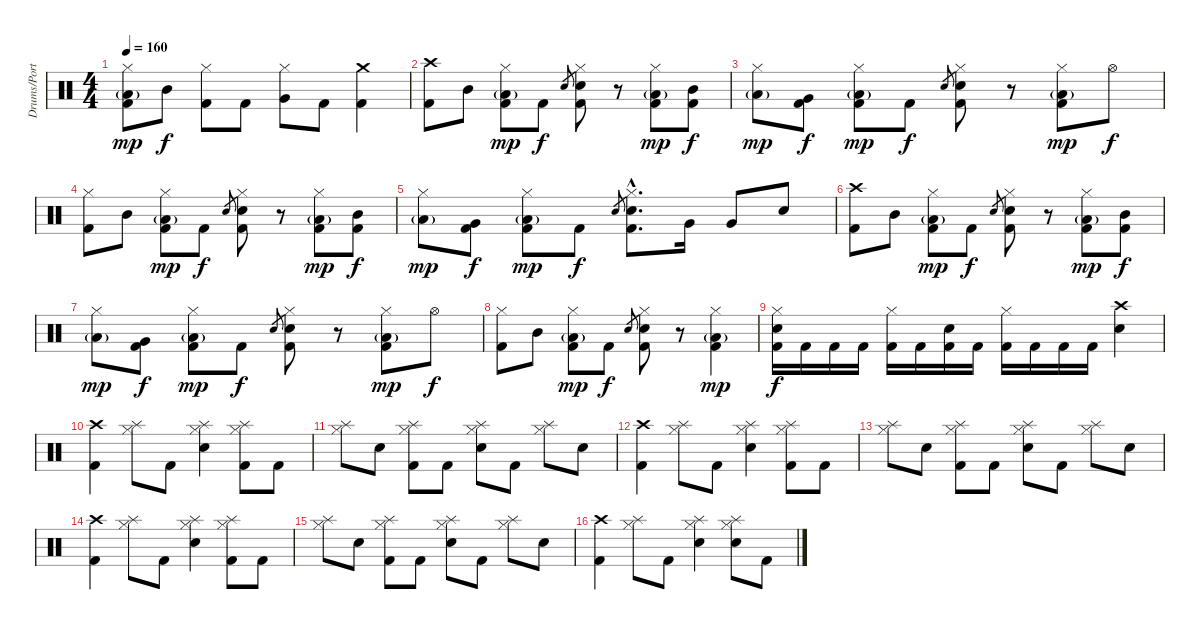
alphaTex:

\track ("Drums/Portnoy" "Drums/Port") {instrument percussion}
\staff {score}
\articulation defaults
\ts (4 4)
\tempo 160
\clef neutral
\ks c
("Hi-Hat (closed)" "Low Tom (hit)"{g} "Kick (hit) 2").8{dy mp} "Mid Tom (hit)".8{dy f} ("Hi-Hat (closed)" "Kick (hit) 2").8 "Kick (hit) 2".8 ("Hi-Hat (closed)" "Very Low Tom (hit)").8 "Kick (hit) 2".8 ("Crash medium (hit)" "Kick (hit) 2").4 |
("Crash high (hit)" "Kick (hit) 2").8 "Mid Tom (hit)".8 ("Hi-Hat (closed)" "Low Tom (hit)"{g} "Kick (hit) 2").8{dy mp} "Kick (hit) 2".8{dy f} "Electric Snare (hit)".8{gr} ("Hi-Hat (closed)" "Electric Snare (hit)" "Kick (hit) 2").8 r.8 ("Hi-Hat (closed)" "Low Tom (hit)"{g} "Kick (hit) 2").8{dy mp} ("Mid Tom (hit)" "Kick (hit) 2").8{dy f} |
("Hi-Hat (closed)" "Low Tom (hit)"{g}).8{dy mp} ("Very Low Tom (hit)" "Kick (hit) 2").8{dy f} ("Hi-Hat (closed)" "Low Tom (hit)"{g} "Kick (hit) 2").8{dy mp} "Kick (hit) 2".8{dy f} "Electric Snare (hit)".8{gr} ("Hi-Hat (closed)" "Electric Snare (hit)" "Kick (hit) 2").8 r.8 ("Hi-Hat (closed)" "Low Tom (hit)"{g} "Kick (hit) 2").8{dy mp} "Hi-Hat (open)".8{dy f} |
("Hi-Hat (closed)" "Kick (hit) 2").8 "Mid Tom (hit)".8 ("Hi-Hat (closed)" "Low Tom (hit)"{g} "Kick (hit) 2").8{dy mp} "Kick (hit) 2".8{dy f} "Electric Snare (hit)".8{gr} ("Hi-Hat (closed)" "Electric Snare (hit)" "Kick (hit) 2").8 r.8 ("Hi-Hat (closed)" "Low Tom (hit)"{g} "Kick (hit) 2").8{dy mp} ("Mid Tom (hit)" "Kick (hit) 2").8{dy f} |
("Hi-Hat (closed)" "Low Tom (hit)"{g}).8{dy mp} ("Very Low Tom (hit)" "Kick (hit) 2").8{dy f} ("Hi-Hat (closed)" "Low Tom (hit)"{g} "Kick (hit) 2").8{dy mp} "Kick (hit) 2".8{dy f} "Electric Snare (hit)".8{gr} ("Hi-Hat (closed)"{hac} "Electric Snare (hit)"{hac} "Kick (hit) 2"{hac}).8{d} "Very Low Tom (hit)".16 "Very Low Tom (hit)".8 "Electric Snare (hit)".8 |
("Crash high (hit)" "Kick (hit) 2").8 "Mid Tom (hit)".8 ("Hi-Hat (closed)" "Low Tom (hit)"{g} "Kick (hit) 2").8{dy mp} "Kick (hit) 2".8{dy f} "Electric Snare (hit)".8{gr} ("Hi-Hat (closed)" "Electric Snare (hit)" "Kick (hit) 2").8 r.8 ("Hi-Hat (closed)" "Low Tom (hit)"{g} "Kick (hit) 2").8{dy mp} ("Mid Tom (hit)" "Kick (hit) 2").8{dy f} |
("Hi-Hat (closed)" "Low Tom (hit)"{g}).8{dy mp} ("Very Low Tom (hit)" "Kick (hit) 2").8{dy f} ("Hi-Hat (closed)" "Low Tom (hit)"{g} "Kick (hit) 2").8{dy mp} "Kick (hit) 2".8{dy f} "Electric Snare (hit)".8{gr} ("Hi-Hat (closed)" "Electric Snare (hit)" "Kick (hit) 2").8 r.8 ("Hi-Hat (closed)" "Low Tom (hit)"{g} "Kick (hit) 2").8{dy mp} "Hi-Hat (open)".8{dy f} |
("Hi-Hat (closed)" "Kick (hit) 2").8 "Mid Tom (hit)".8 ("Hi-Hat (closed)" "Low Tom (hit)"{g} "Kick (hit) 2").8{dy mp} "Kick (hit) 2".8{dy f} "Electric Snare (hit)".8{gr} ("Hi-Hat (closed)" "Electric Snare (hit)" "Kick (hit) 2").8 r.8 ("Hi-Hat (closed)" "Low Tom (hit)"{g} "Kick (hit) 2").4{dy mp} |
("Hi-Hat (closed)" "Electric Snare (hit)" "Kick (hit) 2").16{dy f} "Kick (hit) 2".16 "Kick (hit) 2".16 "Kick (hit) 2".16 ("Hi-Hat (closed)" "Kick (hit) 2").16 "Kick (hit) 2".16 ("Electric Snare (hit)" "Kick (hit) 2").16 "Kick (hit) 2".16 ("Hi-Hat (closed)" "Kick (hit) 2").16 "Kick (hit) 2".16 "Kick (hit) 2".16 "Kick (hit) 2".16 ("Crash high (hit)" "Electric Snare (hit)").4 |
("Crash high (hit)" "Kick (hit) 2").4 ("Splash (hit)" "Hi-Hat (closed)").8 "Kick (hit) 2".8 ("Splash (hit)" "Hi-Hat (closed)" "Electric Snare (hit)").4 ("Splash (hit)" "Hi-Hat (closed)" "Kick (hit) 2").8 "Kick (hit) 2".8 |
("Splash (hit)" "Hi-Hat (closed)").8 "Electric Snare (hit)".8 ("Splash (hit)" "Hi-Hat (closed)" "Kick (hit) 2").8 "Kick (hit) 2".8 ("Splash (hit)" "Hi-Hat (closed)" "Electric Snare (hit)").8 "Kick (hit) 2".8 ("Splash (hit)" "Hi-Hat (closed)").8 "Electric Snare (hit)".8 |
("Crash high (hit)" "Kick (hit) 2").4 ("Splash (hit)" "Hi-Hat (closed)").8 "Kick (hit) 2".8 ("Splash (hit)" "Hi-Hat (closed)" "Electric Snare (hit)").4 ("Splash (hit)" "Hi-Hat (closed)" "Kick (hit) 2").8 "Kick (hit) 2".8 |
("Splash (hit)" "Hi-Hat (closed)").8 "Electric Snare (hit)".8 ("Splash (hit)" "Hi-Hat (closed)" "Kick (hit) 2").8 "Kick (hit) 2".8 ("Splash (hit)" "Hi-Hat (closed)" "Electric Snare (hit)").8 "Kick (hit) 2".8 ("Splash (hit)" "Hi-Hat (closed)").8 "Electric Snare (hit)".8 |
("Crash high (hit)" "Kick (hit) 2").4 ("Splash (hit)" "Hi-Hat (closed)").8 "Kick (hit) 2".8 ("Splash (hit)" "Hi-Hat (closed)" "Electric Snare (hit)").4 ("Splash (hit)" "Hi-Hat (closed)" "Kick (hit) 2").8 "Kick (hit) 2".8 |
("Splash (hit)" "Hi-Hat (closed)").8 "Electric Snare (hit)".8 ("Splash (hit)" "Hi-Hat (closed)" "Kick (hit) 2").8 "Kick (hit) 2".8 ("Splash (hit)" "Hi-Hat (closed)" "Electric Snare (hit)").8 "Kick (hit) 2".8 ("Splash (hit)" "Hi-Hat (closed)").8 "Electric Snare (hit)".8 |
("Crash high (hit)" "Kick (hit) 2").4 ("Splash (hit)" "Hi-Hat (closed)").8 "Kick (hit) 2".8 ("Splash (hit)" "Hi-Hat (closed)" "Electric Snare (hit)").4 ("Splash (hit)" "Hi-Hat (closed)" "Electric Snare (hit)").8 "Kick (hit) 2".8
